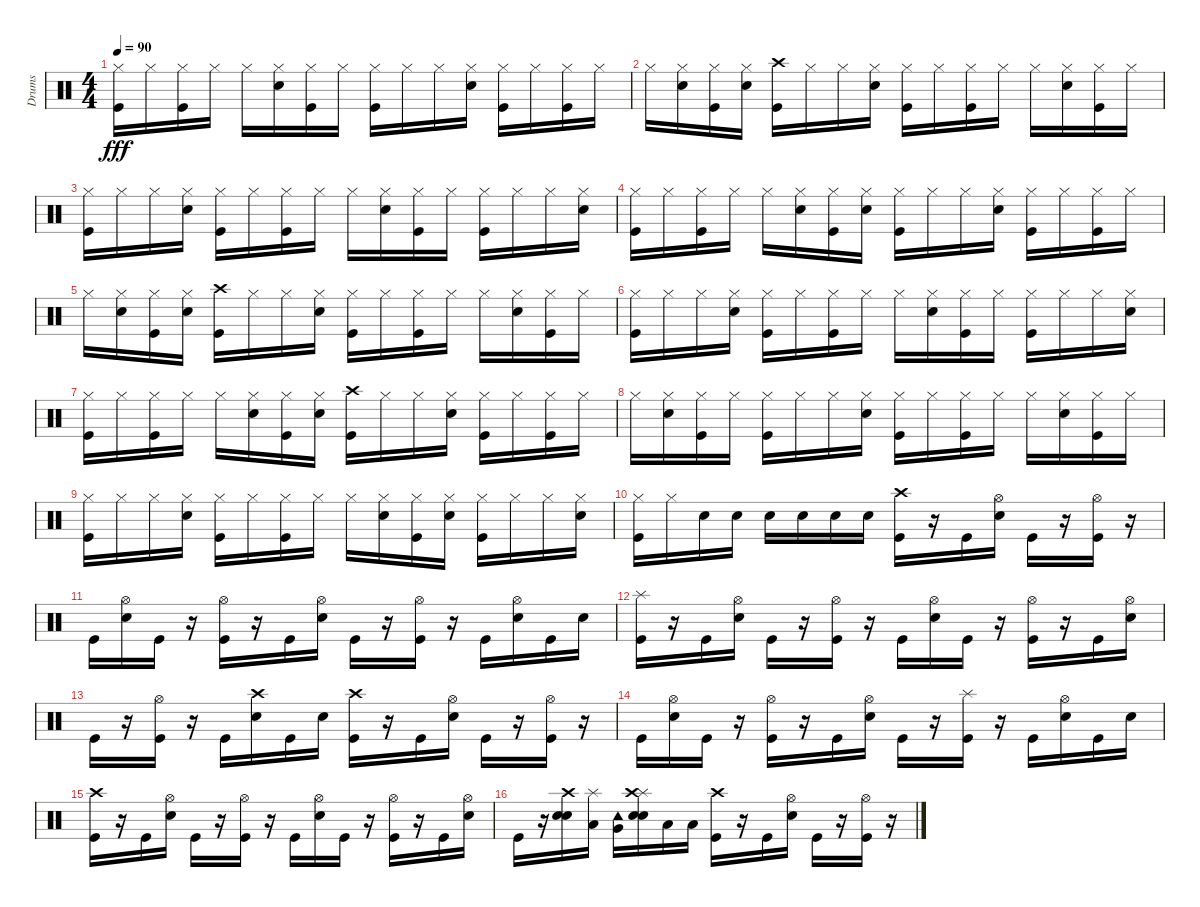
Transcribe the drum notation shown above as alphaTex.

\track ("Drums" "Drums") {instrument percussion}
\staff {score}
\articulation defaults
\ts (4 4)
\tempo 90
\clef neutral
\ks c
("Hi-Hat (closed)" "Kick (hit)").16{dy fff} "Hi-Hat (closed)".16 ("Hi-Hat (closed)" "Kick (hit)").16 "Hi-Hat (closed)".16 "Hi-Hat (closed)".16 ("Hi-Hat (closed)" "Snare (hit) 2").16 ("Hi-Hat (closed)" "Kick (hit)").16 "Hi-Hat (closed)".16 ("Hi-Hat (closed)" "Kick (hit)").16 "Hi-Hat (closed)".16 "Hi-Hat (closed)".16 ("Hi-Hat (closed)" "Snare (hit) 2").16 ("Hi-Hat (closed)" "Kick (hit)").16 "Hi-Hat (closed)".16 ("Hi-Hat (closed)" "Kick (hit)").16 "Hi-Hat (closed)".16 |
"Hi-Hat (closed)".16 ("Hi-Hat (closed)" "Snare (hit) 2").16 ("Hi-Hat (closed)" "Kick (hit)").16 ("Snare (hit) 2" "Hi-Hat (closed)").16 ("Kick (hit)" "Crash high (hit)").16 "Hi-Hat (closed)".16 "Hi-Hat (closed)".16 ("Hi-Hat (closed)" "Snare (hit) 2").16 ("Hi-Hat (closed)" "Kick (hit)").16 "Hi-Hat (closed)".16 ("Hi-Hat (closed)" "Kick (hit)").16 "Hi-Hat (closed)".16 "Hi-Hat (closed)".16 ("Hi-Hat (closed)" "Snare (hit) 2").16 ("Hi-Hat (closed)" "Kick (hit)").16 "Hi-Hat (closed)".16 |
("Kick (hit)" "Hi-Hat (closed)").16 "Hi-Hat (closed)".16 "Hi-Hat (closed)".16 ("Hi-Hat (closed)" "Snare (hit) 2").16 ("Hi-Hat (closed)" "Kick (hit)").16 "Hi-Hat (closed)".16 ("Hi-Hat (closed)" "Kick (hit)").16 "Hi-Hat (closed)".16 "Hi-Hat (closed)".16 ("Hi-Hat (closed)" "Snare (hit) 2").16 ("Hi-Hat (closed)" "Kick (hit)").16 "Hi-Hat (closed)".16 ("Hi-Hat (closed)" "Kick (hit)").16 "Hi-Hat (closed)".16 "Hi-Hat (closed)".16 ("Hi-Hat (closed)" "Snare (hit) 2").16 |
("Hi-Hat (closed)" "Kick (hit)").16 "Hi-Hat (closed)".16 ("Hi-Hat (closed)" "Kick (hit)").16 "Hi-Hat (closed)".16 "Hi-Hat (closed)".16 ("Hi-Hat (closed)" "Snare (hit) 2").16 ("Hi-Hat (closed)" "Kick (hit)").16 ("Snare (hit) 2" "Hi-Hat (closed)").16 ("Hi-Hat (closed)" "Kick (hit)").16 "Hi-Hat (closed)".16 "Hi-Hat (closed)".16 ("Hi-Hat (closed)" "Snare (hit) 2").16 ("Hi-Hat (closed)" "Kick (hit)").16 "Hi-Hat (closed)".16 ("Hi-Hat (closed)" "Kick (hit)").16 "Hi-Hat (closed)".16 |
"Hi-Hat (closed)".16 ("Hi-Hat (closed)" "Snare (hit) 2").16 ("Hi-Hat (closed)" "Kick (hit)").16 ("Snare (hit) 2" "Hi-Hat (closed)").16 ("Kick (hit)" "Crash high (hit)").16 "Hi-Hat (closed)".16 "Hi-Hat (closed)".16 ("Hi-Hat (closed)" "Snare (hit) 2").16 ("Hi-Hat (closed)" "Kick (hit)").16 "Hi-Hat (closed)".16 ("Hi-Hat (closed)" "Kick (hit)").16 "Hi-Hat (closed)".16 "Hi-Hat (closed)".16 ("Hi-Hat (closed)" "Snare (hit) 2").16 ("Hi-Hat (closed)" "Kick (hit)").16 "Hi-Hat (closed)".16 |
("Kick (hit)" "Hi-Hat (closed)").16 "Hi-Hat (closed)".16 "Hi-Hat (closed)".16 ("Hi-Hat (closed)" "Snare (hit) 2").16 ("Hi-Hat (closed)" "Kick (hit)").16 "Hi-Hat (closed)".16 ("Hi-Hat (closed)" "Kick (hit)").16 "Hi-Hat (closed)".16 "Hi-Hat (closed)".16 ("Hi-Hat (closed)" "Snare (hit) 2").16 ("Hi-Hat (closed)" "Kick (hit)").16 "Hi-Hat (closed)".16 ("Hi-Hat (closed)" "Kick (hit)").16 "Hi-Hat (closed)".16 "Hi-Hat (closed)".16 ("Hi-Hat (closed)" "Snare (hit) 2").16 |
("Hi-Hat (closed)" "Kick (hit)").16 "Hi-Hat (closed)".16 ("Hi-Hat (closed)" "Kick (hit)").16 "Hi-Hat (closed)".16 "Hi-Hat (closed)".16 ("Hi-Hat (closed)" "Snare (hit) 2").16 ("Hi-Hat (closed)" "Kick (hit)").16 ("Snare (hit) 2" "Hi-Hat (closed)").16 ("Kick (hit)" "Crash high (hit)").16 "Hi-Hat (closed)".16 "Hi-Hat (closed)".16 ("Hi-Hat (closed)" "Snare (hit) 2").16 ("Hi-Hat (closed)" "Kick (hit)").16 "Hi-Hat (closed)".16 ("Hi-Hat (closed)" "Kick (hit)").16 "Hi-Hat (closed)".16 |
"Hi-Hat (closed)".16 ("Hi-Hat (closed)" "Snare (hit) 2").16 ("Hi-Hat (closed)" "Kick (hit)").16 "Hi-Hat (closed)".16 ("Kick (hit)" "Hi-Hat (closed)").16 "Hi-Hat (closed)".16 "Hi-Hat (closed)".16 ("Hi-Hat (closed)" "Snare (hit) 2").16 ("Hi-Hat (closed)" "Kick (hit)").16 "Hi-Hat (closed)".16 ("Hi-Hat (closed)" "Kick (hit)").16 "Hi-Hat (closed)".16 "Hi-Hat (closed)".16 ("Hi-Hat (closed)" "Snare (hit) 2").16 ("Hi-Hat (closed)" "Kick (hit)").16 "Hi-Hat (closed)".16 |
("Hi-Hat (closed)" "Kick (hit)").16 "Hi-Hat (closed)".16 "Hi-Hat (closed)".16 ("Hi-Hat (closed)" "Snare (hit) 2").16 ("Hi-Hat (closed)" "Kick (hit)").16 "Hi-Hat (closed)".16 ("Hi-Hat (closed)" "Kick (hit)").16 "Hi-Hat (closed)".16 "Hi-Hat (closed)".16 ("Hi-Hat (closed)" "Snare (hit) 2").16 ("Hi-Hat (closed)" "Kick (hit)").16 ("Snare (hit) 2" "Hi-Hat (closed)").16 ("Hi-Hat (closed)" "Kick (hit)").16 "Hi-Hat (closed)".16 "Hi-Hat (closed)".16 ("Hi-Hat (closed)" "Snare (hit) 2").16 |
("Hi-Hat (closed)" "Kick (hit)").16 "Hi-Hat (closed)".16 "Snare (hit) 2".16 "Snare (hit) 2".16 "Snare (hit) 2".16 "Snare (hit) 2".16 "Snare (hit) 2".16 "Snare (hit) 2".16 ("Kick (hit)" "Crash high (hit)").16 r.16 "Kick (hit)".16 ("Hi-Hat (open)" "Snare (hit) 2").16 "Kick (hit)".16 r.16 ("Hi-Hat (open)" "Kick (hit)").16 r.16 |
"Kick (hit)".16 ("Hi-Hat (open)" "Snare (hit) 2").16 "Kick (hit)".16 r.16 ("Hi-Hat (open)" "Kick (hit)").16 r.16 "Kick (hit)".16 ("Hi-Hat (open)" "Snare (hit) 2").16 "Kick (hit)".16 r.16 ("Hi-Hat (open)" "Kick (hit)").16 r.16 "Kick (hit)".16 ("Hi-Hat (open)" "Snare (hit) 2").16 "Kick (hit)".16 "Snare (hit) 2".16 |
("Splash (hit)" "Kick (hit)").16 r.16 "Kick (hit)".16 ("Hi-Hat (open)" "Snare (hit) 2").16 "Kick (hit)".16 r.16 ("Hi-Hat (open)" "Kick (hit)").16 r.16 "Kick (hit)".16 ("Hi-Hat (open)" "Snare (hit) 2").16 "Kick (hit)".16 r.16 ("Hi-Hat (open)" "Kick (hit)").16 r.16 "Kick (hit)".16 ("Hi-Hat (open)" "Snare (hit) 2").16 |
"Kick (hit)".16 r.16 ("Hi-Hat (open)" "Kick (hit)").16 r.16 "Kick (hit)".16 ("Crash high (hit)" "Snare (hit) 2").16 "Kick (hit)".16 "Snare (hit) 2".16 ("Kick (hit)" "Crash high (hit)").16 r.16 "Kick (hit)".16 ("Hi-Hat (open)" "Snare (hit) 2").16 "Kick (hit)".16 r.16 ("Hi-Hat (open)" "Kick (hit)").16 r.16 |
"Kick (hit)".16 ("Hi-Hat (open)" "Snare (hit) 2").16 "Kick (hit)".16 r.16 ("Hi-Hat (open)" "Kick (hit)").16 r.16 "Kick (hit)".16 ("Hi-Hat (open)" "Snare (hit) 2").16 "Kick (hit)".16 r.16 ("Splash (hit)" "Kick (hit)").16 r.16 "Kick (hit)".16 ("Hi-Hat (open)" "Snare (hit) 2").16 "Kick (hit)".16 "Snare (hit) 2".16 |
("Crash high (hit)" "Kick (hit)").16 r.16 "Kick (hit)".16 ("Hi-Hat (open)" "Snare (hit) 2").16 "Kick (hit)".16 r.16 ("Hi-Hat (open)" "Kick (hit)").16 r.16 "Kick (hit)".16 ("Hi-Hat (open)" "Snare (hit) 2").16 "Kick (hit)".16 r.16 ("Hi-Hat (open)" "Kick (hit)").16 r.16 "Kick (hit)".16 ("Hi-Hat (open)" "Snare (hit) 2").16 |
"Kick (hit)".16 r.16 ("Snare (hit) 2" "Crash high (hit)" "Snare (hit) 2").16 ("Splash (hit)" "Low Tom (hit)").16 ("Tambourine (hit)" "Very Low Tom (hit)").16 ("Splash (hit)" "Crash high (hit)" "Snare (hit) 2" "Snare (hit) 2").16 "Low Floor Tom (hit)".16 "Low Floor Tom (hit)".16 ("Kick (hit)" "Crash high (hit)").16 r.16 "Kick (hit)".16 ("Hi-Hat (open)" "Snare (hit) 2").16 "Kick (hit)".16 r.16 ("Hi-Hat (open)" "Kick (hit)").16 r.16
